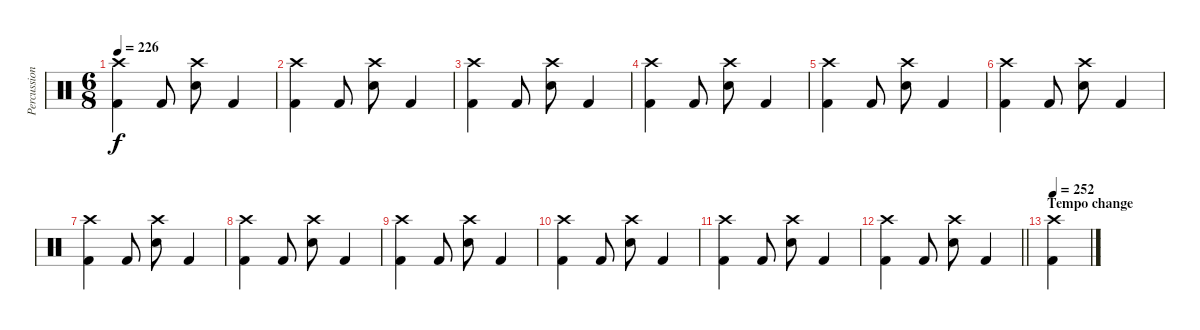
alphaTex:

\track ("Percussion" "Percussion") {instrument percussion}
\staff {score}
\articulation defaults
\ts (6 8)
\tempo 226
\clef neutral
\ks c
("Crash high (hit)" "Kick (hit) 2").4{dy f} "Kick (hit) 2".8 ("Crash high (hit)" "Electric Snare (hit)").8 "Kick (hit) 2".4 |
("Crash high (hit)" "Kick (hit) 2").4 "Kick (hit) 2".8 ("Crash high (hit)" "Electric Snare (hit)").8 "Kick (hit) 2".4 |
("Crash high (hit)" "Kick (hit) 2").4 "Kick (hit) 2".8 ("Crash high (hit)" "Electric Snare (hit)").8 "Kick (hit) 2".4 |
("Crash high (hit)" "Kick (hit) 2").4 "Kick (hit) 2".8 ("Crash high (hit)" "Electric Snare (hit)").8 "Kick (hit) 2".4 |
("Crash high (hit)" "Kick (hit) 2").4 "Kick (hit) 2".8 ("Crash high (hit)" "Electric Snare (hit)").8 "Kick (hit) 2".4 |
("Crash high (hit)" "Kick (hit) 2").4 "Kick (hit) 2".8 ("Crash high (hit)" "Electric Snare (hit)").8 "Kick (hit) 2".4 |
("Crash high (hit)" "Kick (hit) 2").4 "Kick (hit) 2".8 ("Crash high (hit)" "Electric Snare (hit)").8 "Kick (hit) 2".4 |
("Crash high (hit)" "Kick (hit) 2").4 "Kick (hit) 2".8 ("Crash high (hit)" "Electric Snare (hit)").8 "Kick (hit) 2".4 |
("Crash high (hit)" "Kick (hit) 2").4 "Kick (hit) 2".8 ("Crash high (hit)" "Electric Snare (hit)").8 "Kick (hit) 2".4 |
("Crash high (hit)" "Kick (hit) 2").4 "Kick (hit) 2".8 ("Crash high (hit)" "Electric Snare (hit)").8 "Kick (hit) 2".4 |
("Crash high (hit)" "Kick (hit) 2").4 "Kick (hit) 2".8 ("Crash high (hit)" "Electric Snare (hit)").8 "Kick (hit) 2".4 |
\barLineRight lightlight
("Crash high (hit)" "Kick (hit) 2").4 "Kick (hit) 2".8 ("Crash high (hit)" "Electric Snare (hit)").8 "Kick (hit) 2".4 |
\section ("" "Tempo change")
\tempo 252
("Crash high (hit)" "Kick (hit) 2").4
